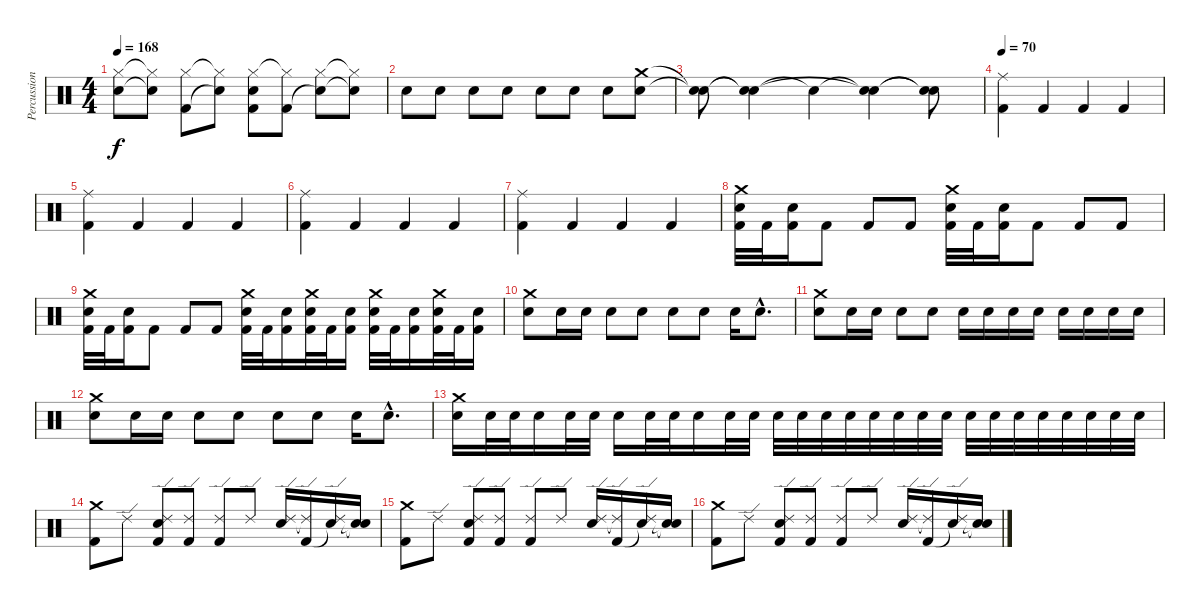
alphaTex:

\track ("Percussion" "Percussion") {instrument percussion}
\staff {score}
\articulation defaults
\ts (4 4)
\tempo 168
\clef neutral
\ks c
("Hi-Hat (closed)" "Snare (hit)"{t}).8{dy f} ("Hi-Hat (closed)"{t} "Snare (hit)"{t}).8 ("Hi-Hat (closed)" "Kick (hit) 2").8 ("Hi-Hat (closed)"{t} "Snare (hit)"{t}).8 ("Hi-Hat (closed)" "Electric Snare (hit)" "Kick (hit) 2").8 ("Hi-Hat (closed)"{t} "Kick (hit) 2").8 ("Hi-Hat (closed)" "Snare (hit)"{t}).8 ("Hi-Hat (closed)"{t} "Snare (hit)"{t}).8 |
"Electric Snare (hit)".8 "Electric Snare (hit)".8 "Electric Snare (hit)".8 "Electric Snare (hit)".8 "Electric Snare (hit)".8 "Electric Snare (hit)".8 "Electric Snare (hit)".8 ("Crash medium (hit)" "Electric Snare (hit)").8 |
("Snare (hit)"{t} "Snare (hit)"{t}).8 ("Snare (hit)"{t} "Snare (hit)"{t}).4 "Snare (hit)"{t}.4 ("Snare (hit)"{t} "Snare (hit)"{t}).4 ("Snare (hit)"{t} "Snare (hit)"{t}).8 |
\tempo 70
("Ride (middle)" "Kick (hit) 2").4 "Kick (hit) 2".4 "Kick (hit) 2".4 "Kick (hit) 2".4 |
("Ride (middle)" "Kick (hit) 2").4 "Kick (hit) 2".4 "Kick (hit) 2".4 "Kick (hit) 2".4 |
("Ride (middle)" "Kick (hit) 2").4 "Kick (hit) 2".4 "Kick (hit) 2".4 "Kick (hit) 2".4 |
("Ride (middle)" "Kick (hit) 2").4 "Kick (hit) 2".4 "Kick (hit) 2".4 "Kick (hit) 2".4 |
("Crash medium (hit)" "Electric Snare (hit)" "Kick (hit) 2").32 "Kick (hit) 2".32 ("Electric Snare (hit)" "Kick (hit) 2").16 "Kick (hit) 2".8 "Kick (hit) 2".8 "Kick (hit) 2".8 ("Crash medium (hit)" "Electric Snare (hit)" "Kick (hit) 2").32 "Kick (hit) 2".32 ("Electric Snare (hit)" "Kick (hit) 2").16 "Kick (hit) 2".8 "Kick (hit) 2".8 "Kick (hit) 2".8 |
("Crash medium (hit)" "Electric Snare (hit)" "Kick (hit) 2").32 "Kick (hit) 2".32 ("Electric Snare (hit)" "Kick (hit) 2").16 "Kick (hit) 2".8 "Kick (hit) 2".8 "Kick (hit) 2".8 ("Crash medium (hit)" "Electric Snare (hit)" "Kick (hit) 2").32 "Kick (hit) 2".32 ("Electric Snare (hit)" "Kick (hit) 2").16 ("Crash medium (hit)" "Electric Snare (hit)" "Kick (hit) 2").32 "Kick (hit) 2".32 ("Electric Snare (hit)" "Kick (hit) 2").16 ("Crash medium (hit)" "Electric Snare (hit)" "Kick (hit) 2").32 "Kick (hit) 2".32 ("Electric Snare (hit)" "Kick (hit) 2").16 ("Crash medium (hit)" "Electric Snare (hit)" "Kick (hit) 2").32 "Kick (hit) 2".32 ("Electric Snare (hit)" "Kick (hit) 2").16 |
("Crash medium (hit)" "Electric Snare (hit)").8 "Electric Snare (hit)".16 "Electric Snare (hit)".16 "Electric Snare (hit)".8 "Electric Snare (hit)".8 "Electric Snare (hit)".8 "Electric Snare (hit)".8 "Electric Snare (hit)".16 "Electric Snare (hit)"{hac}.8{d} |
("Crash medium (hit)" "Electric Snare (hit)").8 "Electric Snare (hit)".16 "Electric Snare (hit)".16 "Electric Snare (hit)".8 "Electric Snare (hit)".8 "Electric Snare (hit)".16 "Electric Snare (hit)".16 "Electric Snare (hit)".16 "Electric Snare (hit)".16 "Electric Snare (hit)".16 "Electric Snare (hit)".16 "Electric Snare (hit)".16 "Electric Snare (hit)".16 |
("Crash medium (hit)" "Electric Snare (hit)").8 "Electric Snare (hit)".16 "Electric Snare (hit)".16 "Electric Snare (hit)".8 "Electric Snare (hit)".8 "Electric Snare (hit)".8 "Electric Snare (hit)".8 "Electric Snare (hit)".16 "Electric Snare (hit)"{hac}.8{d} |
("Crash medium (hit)" "Electric Snare (hit)").16 "Electric Snare (hit)".32 "Electric Snare (hit)".32 "Electric Snare (hit)".16 "Electric Snare (hit)".32 "Electric Snare (hit)".32 "Electric Snare (hit)".16 "Electric Snare (hit)".32 "Electric Snare (hit)".32 "Electric Snare (hit)".16 "Electric Snare (hit)".32 "Electric Snare (hit)".32 "Electric Snare (hit)".32 "Electric Snare (hit)".32 "Electric Snare (hit)".32 "Electric Snare (hit)".32 "Electric Snare (hit)".32 "Electric Snare (hit)".32 "Electric Snare (hit)".32 "Electric Snare (hit)".32 "Electric Snare (hit)".32 "Electric Snare (hit)".32 "Electric Snare (hit)".32 "Electric Snare (hit)".32 "Electric Snare (hit)".32 "Electric Snare (hit)".32 "Electric Snare (hit)".32 "Electric Snare (hit)".32 |
("Crash medium (hit)" "Kick (hit) 2").8 "Ride (edge) 2".8 ("Ride (edge) 2" "Electric Snare (hit)" "Kick (hit) 2").8 ("Ride (edge) 2" "Kick (hit) 2").8 ("Ride (edge) 2" "Kick (hit) 2").8 "Ride (edge) 2".8 ("Ride (edge) 2" "Electric Snare (hit)").16 ("Ride (edge) 2"{t} "Kick (hit) 2").16 ("Ride (edge) 2" "Snare (hit)"{t}).16 ("Snare (hit)"{t} "Snare (hit)"{t}).16 |
("Crash medium (hit)" "Kick (hit) 2").8 "Ride (edge) 2".8 ("Ride (edge) 2" "Electric Snare (hit)" "Kick (hit) 2").8 ("Ride (edge) 2" "Kick (hit) 2").8 ("Ride (edge) 2" "Kick (hit) 2").8 "Ride (edge) 2".8 ("Ride (edge) 2" "Electric Snare (hit)").16 ("Ride (edge) 2"{t} "Kick (hit) 2").16 ("Ride (edge) 2" "Snare (hit)"{t}).16 ("Snare (hit)"{t} "Snare (hit)"{t}).16 |
("Crash medium (hit)" "Kick (hit) 2").8 "Ride (edge) 2".8 ("Ride (edge) 2" "Electric Snare (hit)" "Kick (hit) 2").8 ("Ride (edge) 2" "Kick (hit) 2").8 ("Ride (edge) 2" "Kick (hit) 2").8 "Ride (edge) 2".8 ("Ride (edge) 2" "Electric Snare (hit)").16 ("Ride (edge) 2"{t} "Kick (hit) 2").16 ("Ride (edge) 2" "Snare (hit)"{t}).16 ("Snare (hit)"{t} "Snare (hit)"{t}).16
